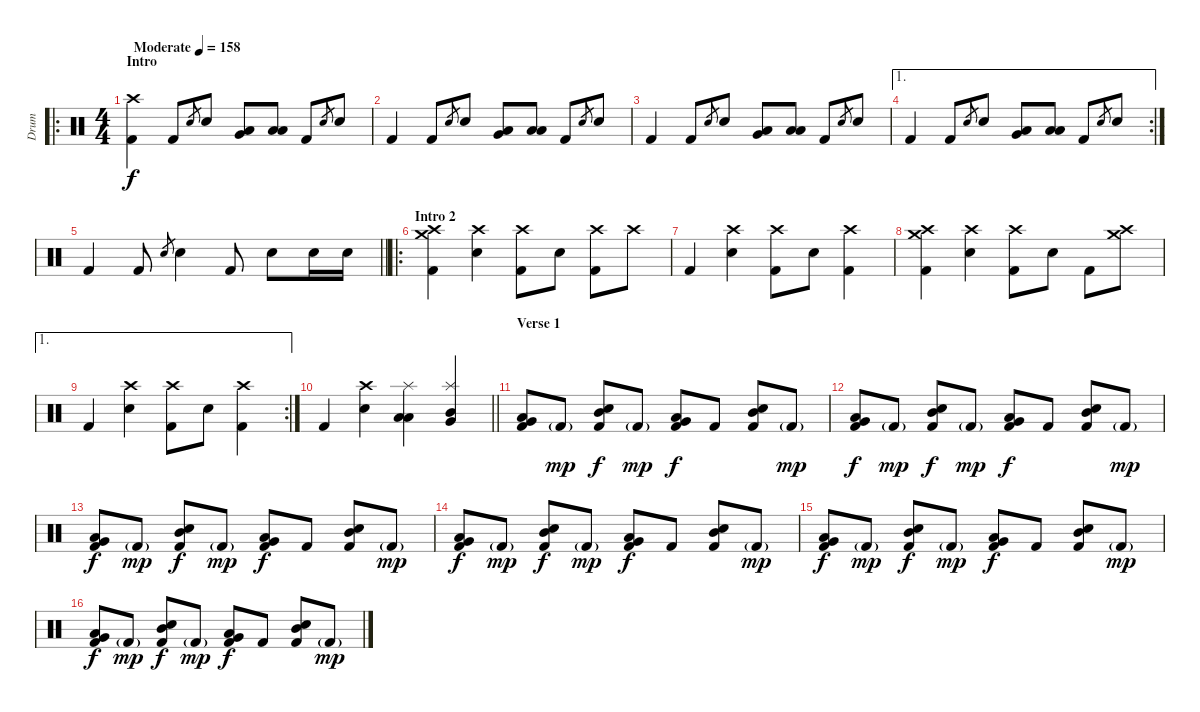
\track ("Drum" "Drum") {instrument percussion}
\staff {score}
\articulation defaults
\ro
\ts (4 4)
\section ("" "Intro")
\tempo (158 "Moderate")
\clef neutral
\ks c
("Crash high (hit)" "Kick (hit) 2").4{dy f} "Kick (hit) 2".8 "Electric Snare (hit)".8{gr} "Electric Snare (hit)".8 ("Very Low Tom (hit)" "Low Tom (hit)").8 ("Low Floor Tom (hit)" "Low Tom (hit)").8 "Kick (hit) 2".8 "Electric Snare (hit)".8{gr} "Electric Snare (hit)".8 |
"Kick (hit) 2".4 "Kick (hit) 2".8 "Electric Snare (hit)".8{gr} "Electric Snare (hit)".8 ("Very Low Tom (hit)" "Low Tom (hit)").8 ("Low Floor Tom (hit)" "Low Tom (hit)").8 "Kick (hit) 2".8 "Electric Snare (hit)".8{gr} "Electric Snare (hit)".8 |
"Kick (hit) 2".4 "Kick (hit) 2".8 "Electric Snare (hit)".8{gr} "Electric Snare (hit)".8 ("Very Low Tom (hit)" "Low Tom (hit)").8 ("Low Floor Tom (hit)" "Low Tom (hit)").8 "Kick (hit) 2".8 "Electric Snare (hit)".8{gr} "Electric Snare (hit)".8 |
\ae 1
\rc 2 "Kick (hit) 2".4 "Kick (hit) 2".8 "Electric Snare (hit)".8{gr} "Electric Snare (hit)".8
("Very Low Tom (hit)" "Low Tom (hit)").8 ("Low Floor Tom (hit)" "Low Tom (hit)").8 "Kick (hit) 2".8 "Electric Snare (hit)".8{gr} "Electric Snare (hit)".8 |
\barLineRight lightlight "Kick (hit) 2".4 "Kick (hit) 2".8 "Electric Snare (hit)".8{gr} "Electric Snare (hit)".4 "Kick (hit) 2".8 "Electric Snare (hit)".8 "Electric Snare (hit)".16 "Electric Snare (hit)".16
|
\ro
\section ("" "Intro 2")
("Crash high (hit)" "Crash medium (hit)" "Kick (hit) 2").4 ("Crash high (hit)" "Electric Snare (hit)").4 ("Crash high (hit)" "Kick (hit) 2").8 "Electric Snare (hit)".8 ("Crash high (hit)" "Kick (hit) 2").8 "Crash high (hit)".8 |
"Kick (hit) 2".4 ("Crash high (hit)" "Electric Snare (hit)").4 ("Crash high (hit)" "Kick (hit) 2").8 "Electric Snare (hit)".8 ("Crash high (hit)" "Kick (hit) 2").4 |
("Crash high (hit)" "Crash medium (hit)" "Kick (hit) 2").4 ("Crash high (hit)" "Electric Snare (hit)").4 ("Crash high (hit)" "Kick (hit) 2").8 "Electric Snare (hit)".8 "Kick (hit) 2".8 ("Crash high (hit)" "Crash medium (hit)").8 |
\ae 1
\rc 2 "Kick (hit) 2".4
("Crash high (hit)" "Electric Snare (hit)").4 ("Crash high (hit)" "Kick (hit) 2").8 "Electric Snare (hit)".8 ("Crash high (hit)" "Kick (hit) 2").4 |
\barLineRight lightlight "Kick (hit) 2".4
("Crash high (hit)" "Electric Snare (hit)").4 ("Splash (hit)" "Low Floor Tom (hit)" "Low Tom (hit)").4 ("Splash (hit)" "Very Low Tom (hit)" "Mid Tom (hit)").4 |
\section ("" "Verse 1")
("Low Floor Tom (hit)" "Very Low Tom (hit)" "Kick (hit) 2").8 "Kick (hit) 2"{g}.8{dy mp} ("Mid Tom (hit)" "Electric Snare (hit)" "Kick (hit) 2").8{dy f} "Kick (hit) 2"{g}.8{dy mp} ("Low Floor Tom (hit)" "Very Low Tom (hit)" "Kick (hit) 2").8{dy f} "Kick (hit) 2".8 ("Mid Tom (hit)" "Electric Snare (hit)" "Kick (hit) 2").8 "Kick (hit) 2"{g}.8{dy mp} |
("Low Floor Tom (hit)" "Very Low Tom (hit)" "Kick (hit) 2").8{dy f} "Kick (hit) 2"{g}.8{dy mp} ("Mid Tom (hit)" "Electric Snare (hit)" "Kick (hit) 2").8{dy f} "Kick (hit) 2"{g}.8{dy mp} ("Low Floor Tom (hit)" "Very Low Tom (hit)" "Kick (hit) 2").8{dy f} "Kick (hit) 2".8 ("Mid Tom (hit)" "Electric Snare (hit)" "Kick (hit) 2").8 "Kick (hit) 2"{g}.8{dy mp} |
("Low Floor Tom (hit)" "Very Low Tom (hit)" "Kick (hit) 2").8{dy f} "Kick (hit) 2"{g}.8{dy mp} ("Mid Tom (hit)" "Electric Snare (hit)" "Kick (hit) 2").8{dy f} "Kick (hit) 2"{g}.8{dy mp} ("Low Floor Tom (hit)" "Very Low Tom (hit)" "Kick (hit) 2").8{dy f} "Kick (hit) 2".8 ("Mid Tom (hit)" "Electric Snare (hit)" "Kick (hit) 2").8 "Kick (hit) 2"{g}.8{dy mp} |
("Low Floor Tom (hit)" "Very Low Tom (hit)" "Kick (hit) 2").8{dy f} "Kick (hit) 2"{g}.8{dy mp} ("Mid Tom (hit)" "Electric Snare (hit)" "Kick (hit) 2").8{dy f} "Kick (hit) 2"{g}.8{dy mp} ("Low Floor Tom (hit)" "Very Low Tom (hit)" "Kick (hit) 2").8{dy f} "Kick (hit) 2".8 ("Mid Tom (hit)" "Electric Snare (hit)" "Kick (hit) 2").8 "Kick (hit) 2"{g}.8{dy mp} |
("Low Floor Tom (hit)" "Very Low Tom (hit)" "Kick (hit) 2").8{dy f} "Kick (hit) 2"{g}.8{dy mp} ("Mid Tom (hit)" "Electric Snare (hit)" "Kick (hit) 2").8{dy f} "Kick (hit) 2"{g}.8{dy mp} ("Low Floor Tom (hit)" "Very Low Tom (hit)" "Kick (hit) 2").8{dy f} "Kick (hit) 2".8 ("Mid Tom (hit)" "Electric Snare (hit)" "Kick (hit) 2").8 "Kick (hit) 2"{g}.8{dy mp} |
("Low Floor Tom (hit)" "Very Low Tom (hit)" "Kick (hit) 2").8{dy f} "Kick (hit) 2"{g}.8{dy mp} ("Mid Tom (hit)" "Electric Snare (hit)" "Kick (hit) 2").8{dy f} "Kick (hit) 2"{g}.8{dy mp} ("Low Floor Tom (hit)" "Very Low Tom (hit)" "Kick (hit) 2").8{dy f} "Kick (hit) 2".8 ("Mid Tom (hit)" "Electric Snare (hit)" "Kick (hit) 2").8 "Kick (hit) 2"{g}.8{dy mp}
